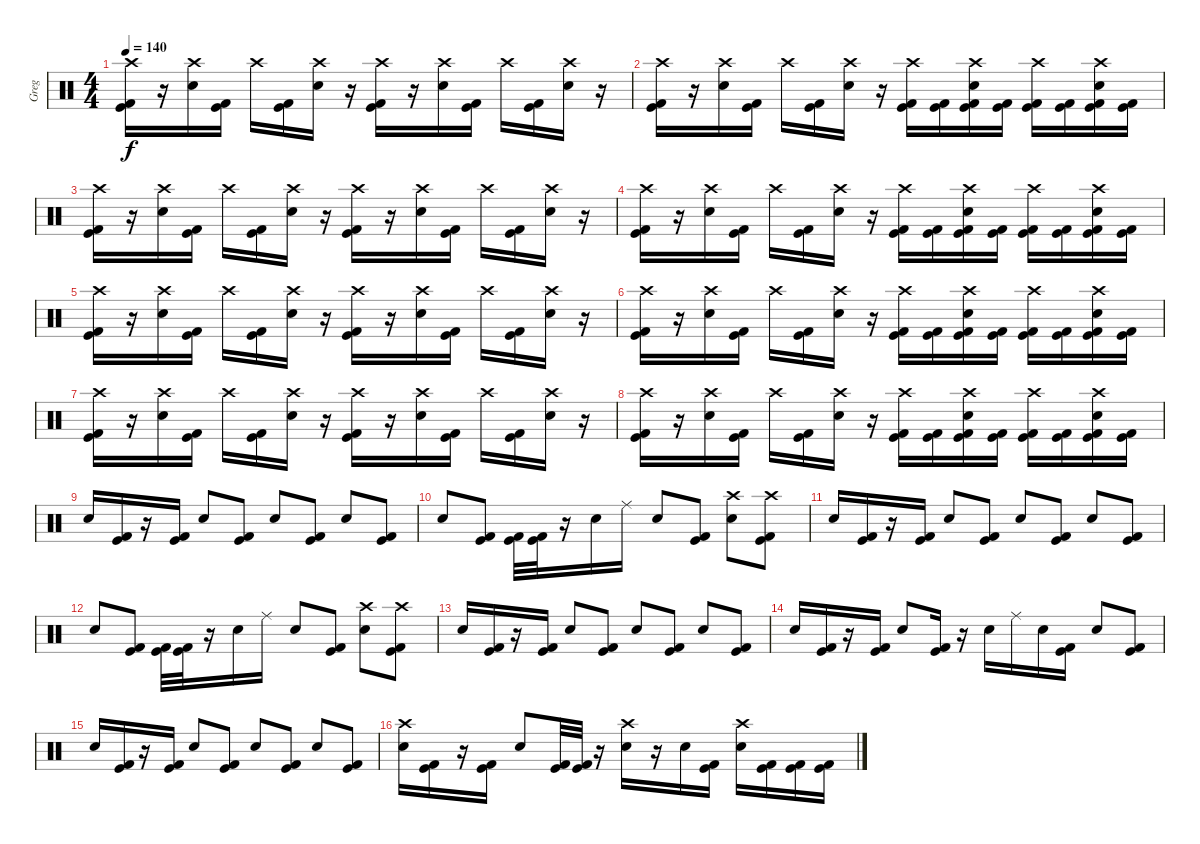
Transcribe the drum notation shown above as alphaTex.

\track ("Greg" "Greg") {instrument percussion}
\staff {score}
\articulation defaults
\ts (4 4)
\tempo 140
\clef neutral
\ks c
("Crash high (hit)" "Kick (hit)" "Kick (hit) 2").16{dy f} r.16 ("Crash high (hit)" "Snare (hit) 2").16 ("Kick (hit)" "Kick (hit) 2").16 "Crash high (hit)".16 ("Kick (hit)" "Kick (hit) 2").16 ("Crash high (hit)" "Snare (hit) 2").16 r.16 ("Crash high (hit)" "Kick (hit)" "Kick (hit) 2").16 r.16 ("Crash high (hit)" "Snare (hit) 2").16 ("Kick (hit)" "Kick (hit) 2").16 "Crash high (hit)".16 ("Kick (hit)" "Kick (hit) 2").16 ("Crash high (hit)" "Snare (hit) 2").16 r.16 |
("Crash high (hit)" "Kick (hit)" "Kick (hit) 2").16 r.16 ("Crash high (hit)" "Snare (hit) 2").16 ("Kick (hit)" "Kick (hit) 2").16 "Crash high (hit)".16 ("Kick (hit)" "Kick (hit) 2").16 ("Crash high (hit)" "Snare (hit) 2").16 r.16 ("Crash high (hit)" "Kick (hit)" "Kick (hit) 2").16 ("Kick (hit)" "Kick (hit) 2").16 ("Crash high (hit)" "Snare (hit) 2" "Kick (hit)" "Kick (hit) 2").16 ("Kick (hit)" "Kick (hit) 2").16 ("Crash high (hit)" "Kick (hit)" "Kick (hit) 2").16 ("Kick (hit)" "Kick (hit) 2").16 ("Crash high (hit)" "Snare (hit) 2" "Kick (hit)" "Kick (hit) 2").16 ("Kick (hit)" "Kick (hit) 2").16 |
("Crash high (hit)" "Kick (hit)" "Kick (hit) 2").16 r.16 ("Crash high (hit)" "Snare (hit) 2").16 ("Kick (hit)" "Kick (hit) 2").16 "Crash high (hit)".16 ("Kick (hit)" "Kick (hit) 2").16 ("Crash high (hit)" "Snare (hit) 2").16 r.16 ("Crash high (hit)" "Kick (hit)" "Kick (hit) 2").16 r.16 ("Crash high (hit)" "Snare (hit) 2").16 ("Kick (hit)" "Kick (hit) 2").16 "Crash high (hit)".16 ("Kick (hit)" "Kick (hit) 2").16 ("Crash high (hit)" "Snare (hit) 2").16 r.16 |
("Crash high (hit)" "Kick (hit)" "Kick (hit) 2").16 r.16 ("Crash high (hit)" "Snare (hit) 2").16 ("Kick (hit)" "Kick (hit) 2").16 "Crash high (hit)".16 ("Kick (hit)" "Kick (hit) 2").16 ("Crash high (hit)" "Snare (hit) 2").16 r.16 ("Crash high (hit)" "Kick (hit)" "Kick (hit) 2").16 ("Kick (hit)" "Kick (hit) 2").16 ("Crash high (hit)" "Snare (hit) 2" "Kick (hit)" "Kick (hit) 2").16 ("Kick (hit)" "Kick (hit) 2").16 ("Crash high (hit)" "Kick (hit)" "Kick (hit) 2").16 ("Kick (hit)" "Kick (hit) 2").16 ("Crash high (hit)" "Snare (hit) 2" "Kick (hit)" "Kick (hit) 2").16 ("Kick (hit)" "Kick (hit) 2").16 |
("Crash high (hit)" "Kick (hit)" "Kick (hit) 2").16 r.16 ("Crash high (hit)" "Snare (hit) 2").16 ("Kick (hit)" "Kick (hit) 2").16 "Crash high (hit)".16 ("Kick (hit)" "Kick (hit) 2").16 ("Crash high (hit)" "Snare (hit) 2").16 r.16 ("Crash high (hit)" "Kick (hit)" "Kick (hit) 2").16 r.16 ("Crash high (hit)" "Snare (hit) 2").16 ("Kick (hit)" "Kick (hit) 2").16 "Crash high (hit)".16 ("Kick (hit)" "Kick (hit) 2").16 ("Crash high (hit)" "Snare (hit) 2").16 r.16 |
("Crash high (hit)" "Kick (hit)" "Kick (hit) 2").16 r.16 ("Crash high (hit)" "Snare (hit) 2").16 ("Kick (hit)" "Kick (hit) 2").16 "Crash high (hit)".16 ("Kick (hit)" "Kick (hit) 2").16 ("Crash high (hit)" "Snare (hit) 2").16 r.16 ("Crash high (hit)" "Kick (hit)" "Kick (hit) 2").16 ("Kick (hit)" "Kick (hit) 2").16 ("Crash high (hit)" "Snare (hit) 2" "Kick (hit)" "Kick (hit) 2").16 ("Kick (hit)" "Kick (hit) 2").16 ("Crash high (hit)" "Kick (hit)" "Kick (hit) 2").16 ("Kick (hit)" "Kick (hit) 2").16 ("Crash high (hit)" "Snare (hit) 2" "Kick (hit)" "Kick (hit) 2").16 ("Kick (hit)" "Kick (hit) 2").16 |
("Crash high (hit)" "Kick (hit)" "Kick (hit) 2").16 r.16 ("Crash high (hit)" "Snare (hit) 2").16 ("Kick (hit)" "Kick (hit) 2").16 "Crash high (hit)".16 ("Kick (hit)" "Kick (hit) 2").16 ("Crash high (hit)" "Snare (hit) 2").16 r.16 ("Crash high (hit)" "Kick (hit)" "Kick (hit) 2").16 r.16 ("Crash high (hit)" "Snare (hit) 2").16 ("Kick (hit)" "Kick (hit) 2").16 "Crash high (hit)".16 ("Kick (hit)" "Kick (hit) 2").16 ("Crash high (hit)" "Snare (hit) 2").16 r.16 |
("Crash high (hit)" "Kick (hit)" "Kick (hit) 2").16 r.16 ("Crash high (hit)" "Snare (hit) 2").16 ("Kick (hit)" "Kick (hit) 2").16 "Crash high (hit)".16 ("Kick (hit)" "Kick (hit) 2").16 ("Crash high (hit)" "Snare (hit) 2").16 r.16 ("Crash high (hit)" "Kick (hit)" "Kick (hit) 2").16 ("Kick (hit)" "Kick (hit) 2").16 ("Crash high (hit)" "Snare (hit) 2" "Kick (hit)" "Kick (hit) 2").16 ("Kick (hit)" "Kick (hit) 2").16 ("Crash high (hit)" "Kick (hit)" "Kick (hit) 2").16 ("Kick (hit)" "Kick (hit) 2").16 ("Crash high (hit)" "Snare (hit) 2" "Kick (hit)" "Kick (hit) 2").16 ("Kick (hit)" "Kick (hit) 2").16 |
"Snare (hit) 2".16 ("Kick (hit)" "Kick (hit) 2").16 r.16 ("Kick (hit)" "Kick (hit) 2").16 "Snare (hit) 2".8 ("Kick (hit)" "Kick (hit) 2").8 "Snare (hit) 2".8 ("Kick (hit)" "Kick (hit) 2").8 "Snare (hit) 2".8 ("Kick (hit)" "Kick (hit) 2").8 |
"Snare (hit) 2".8 ("Kick (hit)" "Kick (hit) 2").8 ("Kick (hit)" "Kick (hit) 2").32 ("Kick (hit)" "Kick (hit) 2").32 r.16 "Snare (hit) 2".16 "Ride (middle)".16 "Snare (hit) 2".8 ("Kick (hit)" "Kick (hit) 2").8 ("Crash high (hit)" "Snare (hit) 2").8 ("Crash high (hit)" "Kick (hit)" "Kick (hit) 2").8 |
"Snare (hit) 2".16 ("Kick (hit)" "Kick (hit) 2").16 r.16 ("Kick (hit)" "Kick (hit) 2").16 "Snare (hit) 2".8 ("Kick (hit)" "Kick (hit) 2").8 "Snare (hit) 2".8 ("Kick (hit)" "Kick (hit) 2").8 "Snare (hit) 2".8 ("Kick (hit)" "Kick (hit) 2").8 |
"Snare (hit) 2".8 ("Kick (hit)" "Kick (hit) 2").8 ("Kick (hit)" "Kick (hit) 2").32 ("Kick (hit)" "Kick (hit) 2").32 r.16 "Snare (hit) 2".16 "Ride (middle)".16 "Snare (hit) 2".8 ("Kick (hit)" "Kick (hit) 2").8 ("Crash high (hit)" "Snare (hit) 2").8 ("Crash high (hit)" "Kick (hit)" "Kick (hit) 2").8 |
"Snare (hit) 2".16 ("Kick (hit)" "Kick (hit) 2").16 r.16 ("Kick (hit)" "Kick (hit) 2").16 "Snare (hit) 2".8 ("Kick (hit)" "Kick (hit) 2").8 "Snare (hit) 2".8 ("Kick (hit)" "Kick (hit) 2").8 "Snare (hit) 2".8 ("Kick (hit)" "Kick (hit) 2").8 |
"Snare (hit) 2".16 ("Kick (hit)" "Kick (hit) 2").16 r.16 ("Kick (hit)" "Kick (hit) 2").16 "Snare (hit) 2".8 ("Kick (hit)" "Kick (hit) 2").16 r.16 "Snare (hit) 2".16 "Ride (middle)".16 "Snare (hit) 2".16 ("Kick (hit)" "Kick (hit) 2").16 "Snare (hit) 2".8 ("Kick (hit)" "Kick (hit) 2").8 |
"Snare (hit) 2".16 ("Kick (hit)" "Kick (hit) 2").16 r.16 ("Kick (hit)" "Kick (hit) 2").16 "Snare (hit) 2".8 ("Kick (hit)" "Kick (hit) 2").8 "Snare (hit) 2".8 ("Kick (hit)" "Kick (hit) 2").8 "Snare (hit) 2".8 ("Kick (hit)" "Kick (hit) 2").8 |
("Crash high (hit)" "Snare (hit) 2").16 ("Kick (hit)" "Kick (hit) 2").16 r.16 ("Kick (hit)" "Kick (hit) 2").16 "Snare (hit) 2".8 ("Kick (hit)" "Kick (hit) 2").32 ("Kick (hit)" "Kick (hit) 2").32 r.16 ("Crash high (hit)" "Snare (hit) 2").16 r.16 "Snare (hit) 2".16 ("Kick (hit)" "Kick (hit) 2").16 ("Crash high (hit)" "Snare (hit) 2").16 ("Kick (hit)" "Kick (hit) 2").16 ("Kick (hit)" "Kick (hit) 2").16 ("Kick (hit)" "Kick (hit) 2").16
